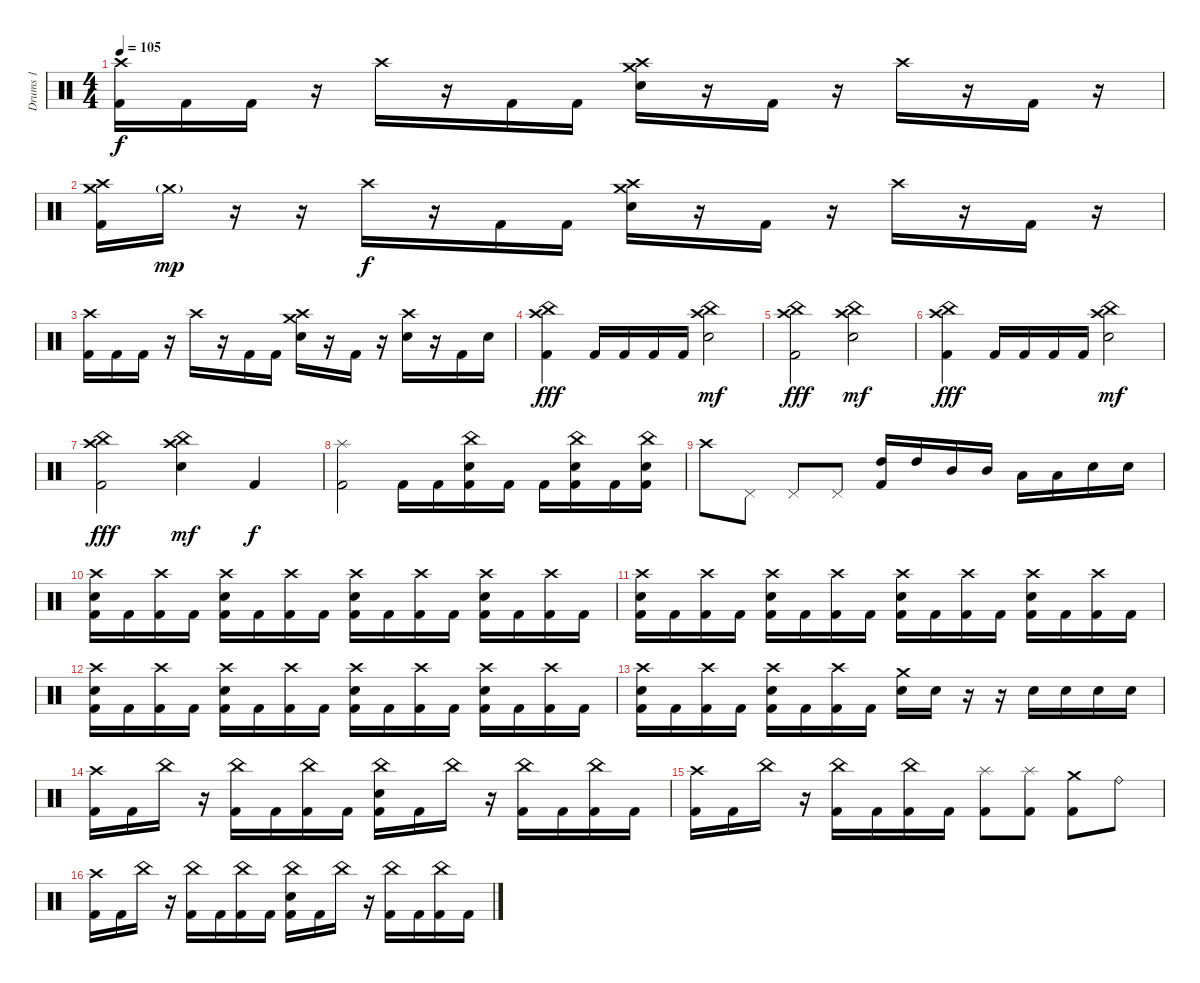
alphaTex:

\track ("Drums 1" "Drums 1") {instrument percussion}
\staff
\articulation defaults
\ts (4 4)
\tempo 105
\clef neutral
\ks c
("Crash high (hit)" "Kick (hit) 2").16{dy f} "Kick (hit) 2".16 "Kick (hit) 2".16 r.16 "Crash high (hit)".16 r.16 "Kick (hit) 2".16 "Kick (hit) 2".16 ("Crash high (hit)" "Crash medium (hit)" "Electric Snare (hit)").16 r.16 "Kick (hit) 2".16 r.16 "Crash high (hit)".16 r.16 "Kick (hit) 2".16 r.16 |
("Crash medium (hit)" "Crash high (hit)" "Kick (hit) 2").16 "Crash medium (hit)"{g}.16{dy mp} r.16 r.16 "Crash high (hit)".16{dy f} r.16 "Kick (hit) 2".16 "Kick (hit) 2".16 ("Crash high (hit)" "Crash medium (hit)" "Electric Snare (hit)").16 r.16 "Kick (hit) 2".16 r.16 "Crash high (hit)".16 r.16 "Kick (hit) 2".16 r.16 |
("Crash high (hit)" "Kick (hit) 2").16 "Kick (hit) 2".16 "Kick (hit) 2".16 r.16 "Crash high (hit)".16 r.16 "Kick (hit) 2".16 "Kick (hit) 2".16 ("Crash high (hit)" "Crash medium (hit)" "Electric Snare (hit)").16 r.16 "Kick (hit) 2".16 r.16 ("Crash high (hit)" "Electric Snare (hit)").16 r.16 "Kick (hit) 2".16 "Electric Snare (hit)".16 |
("Crash high (hit)" "China (hit)" "Kick (hit) 2").4{dy fff} "Kick (hit) 2".16 "Kick (hit) 2".16 "Kick (hit) 2".16 "Kick (hit) 2".16 ("Crash high (hit)" "China (hit)" "Electric Snare (hit)").2{dy mf} |
("Crash high (hit)" "China (hit)" "Kick (hit) 2").2{dy fff} ("Crash high (hit)" "China (hit)" "Electric Snare (hit)").2{dy mf} |
("Crash high (hit)" "China (hit)" "Kick (hit) 2").4{dy fff} "Kick (hit) 2".16 "Kick (hit) 2".16 "Kick (hit) 2".16 "Kick (hit) 2".16 ("Crash high (hit)" "China (hit)" "Electric Snare (hit)").2{dy mf} |
("Crash high (hit)" "China (hit)" "Kick (hit) 2").2{dy fff} ("Crash high (hit)" "China (hit)" "Electric Snare (hit)").4{dy mf} "Kick (hit) 2".4{dy f} |
("Splash (hit)" "Kick (hit) 2").2 "Kick (hit) 2".16 "Kick (hit) 2".16 ("China (hit)" "Electric Snare (hit)" "Kick (hit) 2").16 "Kick (hit) 2".16 "Kick (hit) 2".16 ("China (hit)" "Electric Snare (hit)" "Kick (hit) 2").16 "Kick (hit) 2".16 ("China (hit)" "Electric Snare (hit)" "Kick (hit) 2").16 |
"Crash high (hit)".8 "Pedal Hi-Hat (hit)".8 "Pedal Hi-Hat (hit)".8 "Pedal Hi-Hat (hit)".8 ("High Tom (hit)" "Kick (hit) 2").16 "High Tom (hit)".16 "Mid Tom (hit)".16 "Mid Tom (hit)".16 "Low Tom (hit)".16 "Low Tom (hit)".16 "Electric Snare (hit)".16 "Electric Snare (hit)".16 |
("Crash high (hit)" "Electric Snare (hit)" "Kick (hit) 2").16 "Kick (hit) 2".16 ("Crash high (hit)" "Kick (hit) 2").16 "Kick (hit) 2".16 ("Crash high (hit)" "Electric Snare (hit)" "Kick (hit) 2").16 "Kick (hit) 2".16 ("Crash high (hit)" "Kick (hit) 2").16 "Kick (hit) 2".16 ("Crash high (hit)" "Electric Snare (hit)" "Kick (hit) 2").16 "Kick (hit) 2".16 ("Crash high (hit)" "Kick (hit) 2").16 "Kick (hit) 2".16 ("Crash high (hit)" "Electric Snare (hit)" "Kick (hit) 2").16 "Kick (hit) 2".16 ("Crash high (hit)" "Kick (hit) 2").16 "Kick (hit) 2".16 |
("Crash high (hit)" "Electric Snare (hit)" "Kick (hit) 2").16 "Kick (hit) 2".16 ("Crash high (hit)" "Kick (hit) 2").16 "Kick (hit) 2".16 ("Crash high (hit)" "Electric Snare (hit)" "Kick (hit) 2").16 "Kick (hit) 2".16 ("Crash high (hit)" "Kick (hit) 2").16 "Kick (hit) 2".16 ("Crash high (hit)" "Electric Snare (hit)" "Kick (hit) 2").16 "Kick (hit) 2".16 ("Crash high (hit)" "Kick (hit) 2").16 "Kick (hit) 2".16 ("Crash high (hit)" "Electric Snare (hit)" "Kick (hit) 2").16 "Kick (hit) 2".16 ("Crash high (hit)" "Kick (hit) 2").16 "Kick (hit) 2".16 |
("Crash high (hit)" "Electric Snare (hit)" "Kick (hit) 2").16 "Kick (hit) 2".16 ("Crash high (hit)" "Kick (hit) 2").16 "Kick (hit) 2".16 ("Crash high (hit)" "Electric Snare (hit)" "Kick (hit) 2").16 "Kick (hit) 2".16 ("Crash high (hit)" "Kick (hit) 2").16 "Kick (hit) 2".16 ("Crash high (hit)" "Electric Snare (hit)" "Kick (hit) 2").16 "Kick (hit) 2".16 ("Crash high (hit)" "Kick (hit) 2").16 "Kick (hit) 2".16 ("Crash high (hit)" "Electric Snare (hit)" "Kick (hit) 2").16 "Kick (hit) 2".16 ("Crash high (hit)" "Kick (hit) 2").16 "Kick (hit) 2".16 |
("Crash high (hit)" "Electric Snare (hit)" "Kick (hit) 2").16 "Kick (hit) 2".16 ("Crash high (hit)" "Kick (hit) 2").16 "Kick (hit) 2".16 ("Crash high (hit)" "Electric Snare (hit)" "Kick (hit) 2").16 "Kick (hit) 2".16 ("Crash high (hit)" "Kick (hit) 2").16 "Kick (hit) 2".16 ("Crash medium (hit)" "Electric Snare (hit)").16 "Electric Snare (hit)".16 r.16 r.16 "Electric Snare (hit)".16 "Electric Snare (hit)".16 "Electric Snare (hit)".16 "Electric Snare (hit)".16 |
("Crash high (hit)" "Kick (hit) 2").16 "Kick (hit) 2".16 "China (hit)".16 r.16 ("China (hit)" "Kick (hit) 2").16 "Kick (hit) 2".16 ("China (hit)" "Kick (hit) 2").16 "Kick (hit) 2".16 ("China (hit)" "Electric Snare (hit)" "Kick (hit) 2").16 "Kick (hit) 2".16 "China (hit)".16 r.16 ("China (hit)" "Kick (hit) 2").16 "Kick (hit) 2".16 ("China (hit)" "Kick (hit) 2").16 "Kick (hit) 2".16 |
("Crash high (hit)" "Kick (hit) 2").16 "Kick (hit) 2".16 "China (hit)".16 r.16 ("China (hit)" "Kick (hit) 2").16 "Kick (hit) 2".16 ("China (hit)" "Kick (hit) 2").16 "Kick (hit) 2".16 ("Splash (hit)" "Kick (hit) 2").8 ("Splash (hit)" "Kick (hit) 2").8 ("Crash medium (hit)" "Kick (hit) 2").8 "Ride (bell)".8 |
("Crash high (hit)" "Kick (hit) 2").16 "Kick (hit) 2".16 "China (hit)".16 r.16 ("China (hit)" "Kick (hit) 2").16 "Kick (hit) 2".16 ("China (hit)" "Kick (hit) 2").16 "Kick (hit) 2".16 ("China (hit)" "Electric Snare (hit)" "Kick (hit) 2").16 "Kick (hit) 2".16 "China (hit)".16 r.16 ("China (hit)" "Kick (hit) 2").16 "Kick (hit) 2".16 ("China (hit)" "Kick (hit) 2").16 "Kick (hit) 2".16
